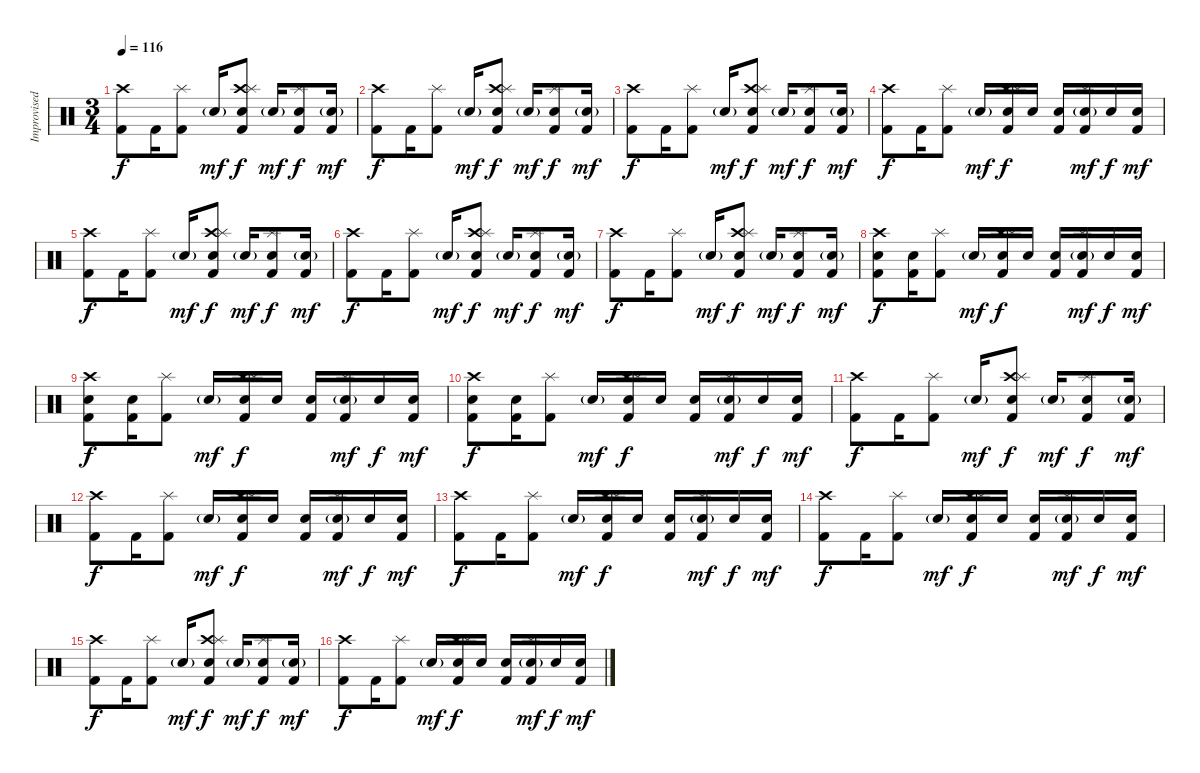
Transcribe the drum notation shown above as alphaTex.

\track ("Improvised Drums" "Improvised") {instrument percussion}
\staff {score}
\articulation defaults
\ts (3 4)
\tempo 116
\clef neutral
\ks c
("Kick (hit) 2" "Crash high (hit)").8{dy f} "Kick (hit) 2".16 ("Kick (hit) 2" "Splash (hit)").8 "Snare (hit) 2"{g}.16{dy mf} ("Kick (hit) 2" "Snare (hit) 2" "Crash high (hit)" "Splash (hit)").8{dy f} "Snare (hit) 2"{g}.16{dy mf} ("Kick (hit) 2" "Snare (hit) 2" "Splash (hit)").8{dy f} ("Kick (hit) 2" "Snare (hit) 2"{g}).16{dy mf} |
("Kick (hit) 2" "Crash high (hit)").8{dy f} "Kick (hit) 2".16 ("Kick (hit) 2" "Splash (hit)").8 "Snare (hit) 2"{g}.16{dy mf} ("Kick (hit) 2" "Snare (hit) 2" "Crash high (hit)" "Splash (hit)").8{dy f} "Snare (hit) 2"{g}.16{dy mf} ("Kick (hit) 2" "Snare (hit) 2" "Splash (hit)").8{dy f} ("Kick (hit) 2" "Snare (hit) 2"{g}).16{dy mf} |
("Kick (hit) 2" "Crash high (hit)").8{dy f} "Kick (hit) 2".16 ("Kick (hit) 2" "Splash (hit)").8 "Snare (hit) 2"{g}.16{dy mf} ("Kick (hit) 2" "Snare (hit) 2" "Crash high (hit)" "Splash (hit)").8{dy f} "Snare (hit) 2"{g}.16{dy mf} ("Kick (hit) 2" "Snare (hit) 2" "Splash (hit)").8{dy f} ("Kick (hit) 2" "Snare (hit) 2"{g}).16{dy mf} |
("Kick (hit) 2" "Crash high (hit)").8{dy f} "Kick (hit) 2".16 ("Kick (hit) 2" "Splash (hit)").8 "Snare (hit) 2"{g}.16{dy mf} ("Kick (hit) 2" "Snare (hit) 2" "Crash high (hit)" "Splash (hit)").16{dy f} "Snare (hit) 2".16 ("Kick (hit) 2" "Snare (hit) 2").16 ("Kick (hit) 2" "Snare (hit) 2"{g} "Splash (hit)").16{dy mf} "Snare (hit) 2".16{dy f} ("Kick (hit) 2" "Snare (hit) 2").16{dy mf} |
("Kick (hit) 2" "Crash high (hit)").8{dy f} "Kick (hit) 2".16 ("Kick (hit) 2" "Splash (hit)").8 "Snare (hit) 2"{g}.16{dy mf} ("Kick (hit) 2" "Snare (hit) 2" "Crash high (hit)" "Splash (hit)").8{dy f} "Snare (hit) 2"{g}.16{dy mf} ("Kick (hit) 2" "Snare (hit) 2" "Splash (hit)").8{dy f} ("Kick (hit) 2" "Snare (hit) 2"{g}).16{dy mf} |
("Kick (hit) 2" "Crash high (hit)").8{dy f} "Kick (hit) 2".16 ("Kick (hit) 2" "Splash (hit)").8 "Snare (hit) 2"{g}.16{dy mf} ("Kick (hit) 2" "Snare (hit) 2" "Crash high (hit)" "Splash (hit)").8{dy f} "Snare (hit) 2"{g}.16{dy mf} ("Kick (hit) 2" "Snare (hit) 2" "Splash (hit)").8{dy f} ("Kick (hit) 2" "Snare (hit) 2"{g}).16{dy mf} |
("Kick (hit) 2" "Crash high (hit)").8{dy f} "Kick (hit) 2".16 ("Kick (hit) 2" "Splash (hit)").8 "Snare (hit) 2"{g}.16{dy mf} ("Kick (hit) 2" "Snare (hit) 2" "Crash high (hit)" "Splash (hit)").8{dy f} "Snare (hit) 2"{g}.16{dy mf} ("Kick (hit) 2" "Snare (hit) 2" "Splash (hit)").8{dy f} ("Kick (hit) 2" "Snare (hit) 2"{g}).16{dy mf} |
("Kick (hit) 2" "Snare (hit) 2" "Crash high (hit)").8{dy f} ("Kick (hit) 2" "Snare (hit) 2").16 ("Kick (hit) 2" "Splash (hit)").8 "Snare (hit) 2"{g}.16{dy mf} ("Kick (hit) 2" "Snare (hit) 2" "Crash high (hit)" "Splash (hit)").16{dy f} "Snare (hit) 2".16 ("Kick (hit) 2" "Snare (hit) 2").16 ("Kick (hit) 2" "Snare (hit) 2"{g} "Splash (hit)").16{dy mf} "Snare (hit) 2".16{dy f} ("Kick (hit) 2" "Snare (hit) 2").16{dy mf} |
("Kick (hit) 2" "Snare (hit) 2" "Crash high (hit)").8{dy f} ("Kick (hit) 2" "Snare (hit) 2").16 ("Kick (hit) 2" "Splash (hit)").8 "Snare (hit) 2"{g}.16{dy mf} ("Kick (hit) 2" "Snare (hit) 2" "Crash high (hit)" "Splash (hit)").16{dy f} "Snare (hit) 2".16 ("Kick (hit) 2" "Snare (hit) 2").16 ("Kick (hit) 2" "Snare (hit) 2"{g} "Splash (hit)").16{dy mf} "Snare (hit) 2".16{dy f} ("Kick (hit) 2" "Snare (hit) 2").16{dy mf} |
("Kick (hit) 2" "Snare (hit) 2" "Crash high (hit)").8{dy f} ("Kick (hit) 2" "Snare (hit) 2").16 ("Kick (hit) 2" "Splash (hit)").8 "Snare (hit) 2"{g}.16{dy mf} ("Kick (hit) 2" "Snare (hit) 2" "Crash high (hit)" "Splash (hit)").16{dy f} "Snare (hit) 2".16 ("Kick (hit) 2" "Snare (hit) 2").16 ("Kick (hit) 2" "Snare (hit) 2"{g} "Splash (hit)").16{dy mf} "Snare (hit) 2".16{dy f} ("Kick (hit) 2" "Snare (hit) 2").16{dy mf} |
("Kick (hit) 2" "Crash high (hit)").8{dy f} "Kick (hit) 2".16 ("Kick (hit) 2" "Splash (hit)").8 "Snare (hit) 2"{g}.16{dy mf} ("Kick (hit) 2" "Snare (hit) 2" "Crash high (hit)" "Splash (hit)").8{dy f} "Snare (hit) 2"{g}.16{dy mf} ("Kick (hit) 2" "Snare (hit) 2" "Splash (hit)").8{dy f} ("Kick (hit) 2" "Snare (hit) 2"{g}).16{dy mf} |
("Kick (hit) 2" "Crash high (hit)").8{dy f} "Kick (hit) 2".16 ("Kick (hit) 2" "Splash (hit)").8 "Snare (hit) 2"{g}.16{dy mf} ("Kick (hit) 2" "Snare (hit) 2" "Crash high (hit)" "Splash (hit)").16{dy f} "Snare (hit) 2".16 ("Kick (hit) 2" "Snare (hit) 2").16 ("Kick (hit) 2" "Snare (hit) 2"{g} "Splash (hit)").16{dy mf} "Snare (hit) 2".16{dy f} ("Kick (hit) 2" "Snare (hit) 2").16{dy mf} |
("Kick (hit) 2" "Crash high (hit)").8{dy f} "Kick (hit) 2".16 ("Kick (hit) 2" "Splash (hit)").8 "Snare (hit) 2"{g}.16{dy mf} ("Kick (hit) 2" "Snare (hit) 2" "Crash high (hit)" "Splash (hit)").16{dy f} "Snare (hit) 2".16 ("Kick (hit) 2" "Snare (hit) 2").16 ("Kick (hit) 2" "Snare (hit) 2"{g} "Splash (hit)").16{dy mf} "Snare (hit) 2".16{dy f} ("Kick (hit) 2" "Snare (hit) 2").16{dy mf} |
("Kick (hit) 2" "Crash high (hit)").8{dy f} "Kick (hit) 2".16 ("Kick (hit) 2" "Splash (hit)").8 "Snare (hit) 2"{g}.16{dy mf} ("Kick (hit) 2" "Snare (hit) 2" "Crash high (hit)" "Splash (hit)").16{dy f} "Snare (hit) 2".16 ("Kick (hit) 2" "Snare (hit) 2").16 ("Kick (hit) 2" "Snare (hit) 2"{g} "Splash (hit)").16{dy mf} "Snare (hit) 2".16{dy f} ("Kick (hit) 2" "Snare (hit) 2").16{dy mf} |
("Kick (hit) 2" "Crash high (hit)").8{dy f} "Kick (hit) 2".16 ("Kick (hit) 2" "Splash (hit)").8 "Snare (hit) 2"{g}.16{dy mf} ("Kick (hit) 2" "Snare (hit) 2" "Crash high (hit)" "Splash (hit)").8{dy f} "Snare (hit) 2"{g}.16{dy mf} ("Kick (hit) 2" "Snare (hit) 2" "Splash (hit)").8{dy f} ("Kick (hit) 2" "Snare (hit) 2"{g}).16{dy mf} |
("Kick (hit) 2" "Crash high (hit)").8{dy f} "Kick (hit) 2".16 ("Kick (hit) 2" "Splash (hit)").8 "Snare (hit) 2"{g}.16{dy mf} ("Kick (hit) 2" "Snare (hit) 2" "Crash high (hit)" "Splash (hit)").16{dy f} "Snare (hit) 2".16 ("Kick (hit) 2" "Snare (hit) 2").16 ("Kick (hit) 2" "Snare (hit) 2"{g} "Splash (hit)").16{dy mf} "Snare (hit) 2".16{dy f} ("Kick (hit) 2" "Snare (hit) 2").16{dy mf}
